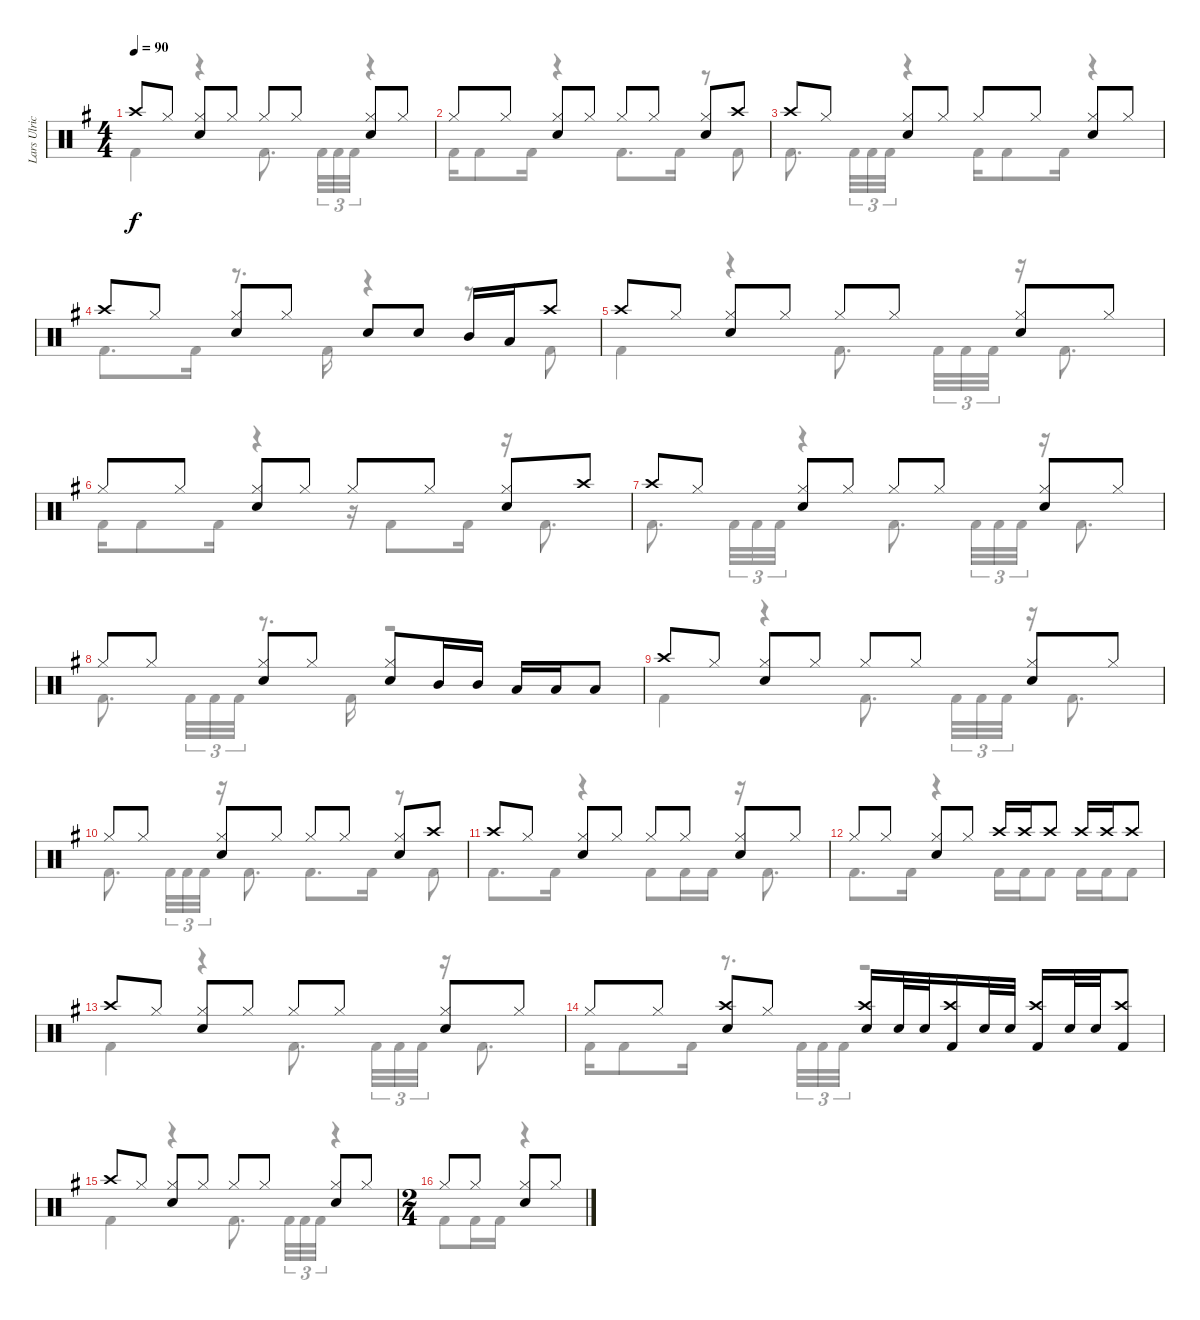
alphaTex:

\track ("Lars Ulrich" "Lars Ulric") {instrument percussion}
\staff {score}
\articulation defaults
\voice
\ts (4 4)
\tempo 90
\clef neutral
\ks eminor "Crash high (hit)".8{dy f} "Hi-Hat (closed)".8
("Hi-Hat (closed)" "Snare (hit) 2").8 "Hi-Hat (closed)".8 "Hi-Hat (closed)".8 "Hi-Hat (closed)".8 ("Hi-Hat (closed)" "Snare (hit) 2").8 "Hi-Hat (closed)".8 |
"Hi-Hat (closed)".8 "Hi-Hat (closed)".8 ("Hi-Hat (closed)" "Snare (hit) 2").8 "Hi-Hat (closed)".8 "Hi-Hat (closed)".8 "Hi-Hat (closed)".8 ("Hi-Hat (closed)" "Snare (hit) 2").8 "Crash high (hit)".8 |
"Crash high (hit)".8 "Hi-Hat (closed)".8 ("Hi-Hat (closed)" "Snare (hit) 2").8 "Hi-Hat (closed)".8 "Hi-Hat (closed)".8 "Hi-Hat (closed)".8 ("Hi-Hat (closed)" "Snare (hit) 2").8 "Hi-Hat (closed)".8 |
"Crash high (hit)".8 "Hi-Hat (closed)".8 ("Hi-Hat (closed)" "Snare (hit) 2").8 "Hi-Hat (closed)".8 "Snare (hit) 2".8 "Snare (hit) 2".8 "Mid Tom (hit)".16 "Low Tom (hit)".16 "Crash high (hit)".8 |
"Crash high (hit)".8 "Hi-Hat (closed)".8 ("Hi-Hat (closed)" "Snare (hit) 2").8 "Hi-Hat (closed)".8 "Hi-Hat (closed)".8 "Hi-Hat (closed)".8 ("Hi-Hat (closed)" "Snare (hit) 2").8 "Hi-Hat (closed)".8 |
"Hi-Hat (closed)".8 "Hi-Hat (closed)".8 ("Hi-Hat (closed)" "Snare (hit) 2").8 "Hi-Hat (closed)".8 "Hi-Hat (closed)".8 "Hi-Hat (closed)".8 ("Hi-Hat (closed)" "Snare (hit) 2").8 "Crash high (hit)".8 |
"Crash high (hit)".8 "Hi-Hat (closed)".8 ("Hi-Hat (closed)" "Snare (hit) 2").8 "Hi-Hat (closed)".8 "Hi-Hat (closed)".8 "Hi-Hat (closed)".8 ("Hi-Hat (closed)" "Snare (hit) 2").8 "Hi-Hat (closed)".8 |
"Hi-Hat (closed)".8 "Hi-Hat (closed)".8 ("Hi-Hat (closed)" "Snare (hit) 2").8 "Hi-Hat (closed)".8 ("Hi-Hat (closed)" "Snare (hit) 2").8 "Mid Tom (hit)".16 "Mid Tom (hit)".16 "Low Tom (hit)".16 "Low Tom (hit)".16 "Low Tom (hit)".8 |
"Crash high (hit)".8 "Hi-Hat (closed)".8 ("Hi-Hat (closed)" "Snare (hit) 2").8 "Hi-Hat (closed)".8 "Hi-Hat (closed)".8 "Hi-Hat (closed)".8 ("Hi-Hat (closed)" "Snare (hit) 2").8 "Hi-Hat (closed)".8 |
"Hi-Hat (closed)".8 "Hi-Hat (closed)".8 ("Hi-Hat (closed)" "Snare (hit) 2").8 "Hi-Hat (closed)".8 "Hi-Hat (closed)".8 "Hi-Hat (closed)".8 ("Hi-Hat (closed)" "Snare (hit) 2").8 "Crash high (hit)".8 |
"Crash high (hit)".8 "Hi-Hat (closed)".8 ("Hi-Hat (closed)" "Snare (hit) 2").8 "Hi-Hat (closed)".8 "Hi-Hat (closed)".8 "Hi-Hat (closed)".8 ("Hi-Hat (closed)" "Snare (hit) 2").8 "Hi-Hat (closed)".8 |
"Hi-Hat (closed)".8 "Hi-Hat (closed)".8 ("Hi-Hat (closed)" "Snare (hit) 2").8 "Hi-Hat (closed)".8 "Crash high (hit)".16 "Crash high (hit)".16 "Crash high (hit)".8 "Crash high (hit)".16 "Crash high (hit)".16 "Crash high (hit)".8 |
"Crash high (hit)".8 "Hi-Hat (closed)".8 ("Hi-Hat (closed)" "Snare (hit) 2").8 "Hi-Hat (closed)".8 "Hi-Hat (closed)".8 "Hi-Hat (closed)".8 ("Hi-Hat (closed)" "Snare (hit) 2").8 "Hi-Hat (closed)".8 |
"Hi-Hat (closed)".8 "Hi-Hat (closed)".8 ("Crash high (hit)" "Snare (hit) 2").8 "Hi-Hat (closed)".8 ("Crash high (hit)" "Snare (hit) 2").16 "Snare (hit) 2".32 "Snare (hit) 2".32 ("Crash high (hit)" "Kick (hit) 2").16 "Snare (hit) 2".32 "Snare (hit) 2".32 ("Crash high (hit)" "Kick (hit) 2").16 "Snare (hit) 2".32 "Snare (hit) 2".32 ("Crash high (hit)" "Kick (hit) 2").8 |
"Crash high (hit)".8 "Hi-Hat (closed)".8 ("Hi-Hat (closed)" "Snare (hit) 2").8 "Hi-Hat (closed)".8 "Hi-Hat (closed)".8 "Hi-Hat (closed)".8 ("Hi-Hat (closed)" "Snare (hit) 2").8 "Hi-Hat (closed)".8 |
\ts (2 4)
"Hi-Hat (closed)".8 "Hi-Hat (closed)".8 ("Hi-Hat (closed)" "Snare (hit) 2").8 "Hi-Hat (closed)".8
\voice
\clef neutral
\ottava regular
\simile none
\ks eminor "Kick (hit) 2".4{dy f}
r.4 "Kick (hit) 2".8{d} "Kick (hit) 2".32{tu (3 2)} "Kick (hit) 2".32{tu (3 2)} "Kick (hit) 2".32{tu (3 2)} r.4 |
"Kick (hit) 2".16 "Kick (hit) 2".8 "Kick (hit) 2".16 r.4 "Kick (hit) 2".8{d} "Kick (hit) 2".16 r.8 "Kick (hit) 2".8 |
"Kick (hit) 2".8{d} "Kick (hit) 2".32{tu (3 2)} "Kick (hit) 2".32{tu (3 2)} "Kick (hit) 2".32{tu (3 2)} r.4 "Kick (hit) 2".16 "Kick (hit) 2".8 "Kick (hit) 2".16 r.4 |
"Kick (hit) 2".8{d} "Kick (hit) 2".16 r.8{d} "Kick (hit) 2".16 r.4 r.8 "Kick (hit) 2".8 |
"Kick (hit) 2".4 r.4 "Kick (hit) 2".8{d} "Kick (hit) 2".32{tu (3 2)} "Kick (hit) 2".32{tu (3 2)} "Kick (hit) 2".32{tu (3 2)} r.16 "Kick (hit) 2".8{d} |
"Kick (hit) 2".16 "Kick (hit) 2".8 "Kick (hit) 2".16 r.4 r.16 "Kick (hit) 2".8 "Kick (hit) 2".16 r.16 "Kick (hit) 2".8{d} |
"Kick (hit) 2".8{d} "Kick (hit) 2".32{tu (3 2)} "Kick (hit) 2".32{tu (3 2)} "Kick (hit) 2".32{tu (3 2)} r.4 "Kick (hit) 2".8{d} "Kick (hit) 2".32{tu (3 2)} "Kick (hit) 2".32{tu (3 2)} "Kick (hit) 2".32{tu (3 2)} r.16 "Kick (hit) 2".8{d} |
"Kick (hit) 2".8{d} "Kick (hit) 2".32{tu (3 2)} "Kick (hit) 2".32{tu (3 2)} "Kick (hit) 2".32{tu (3 2)} r.8{d} "Kick (hit) 2".16 r.2 |
"Kick (hit) 2".4 r.4 "Kick (hit) 2".8{d} "Kick (hit) 2".32{tu (3 2)} "Kick (hit) 2".32{tu (3 2)} "Kick (hit) 2".32{tu (3 2)} r.16 "Kick (hit) 2".8{d} |
"Kick (hit) 2".8{d} "Kick (hit) 2".32{tu (3 2)} "Kick (hit) 2".32{tu (3 2)} "Kick (hit) 2".32{tu (3 2)} r.16 "Kick (hit) 2".8{d} "Kick (hit) 2".8{d} "Kick (hit) 2".16 r.8 "Kick (hit) 2".8 |
"Kick (hit) 2".8{d} "Kick (hit) 2".16 r.4 "Kick (hit) 2".8 "Kick (hit) 2".16 "Kick (hit) 2".16 r.16 "Kick (hit) 2".8{d} |
"Kick (hit) 2".8{d} "Kick (hit) 2".16 r.4 "Kick (hit) 2".16 "Kick (hit) 2".16 "Kick (hit) 2".8 "Kick (hit) 2".16 "Kick (hit) 2".16 "Kick (hit) 2".8 |
"Kick (hit) 2".4 r.4 "Kick (hit) 2".8{d} "Kick (hit) 2".32{tu (3 2)} "Kick (hit) 2".32{tu (3 2)} "Kick (hit) 2".32{tu (3 2)} r.16 "Kick (hit) 2".8{d} |
"Kick (hit) 2".16 "Kick (hit) 2".8 "Kick (hit) 2".16 r.8{d} "Kick (hit) 2".32{tu (3 2)} "Kick (hit) 2".32{tu (3 2)} "Kick (hit) 2".32{tu (3 2)} r.2 |
"Kick (hit) 2".4 r.4 "Kick (hit) 2".8{d} "Kick (hit) 2".32{tu (3 2)} "Kick (hit) 2".32{tu (3 2)} "Kick (hit) 2".32{tu (3 2)} r.4 |
"Kick (hit) 2".8 "Kick (hit) 2".16 "Kick (hit) 2".16 r.4
